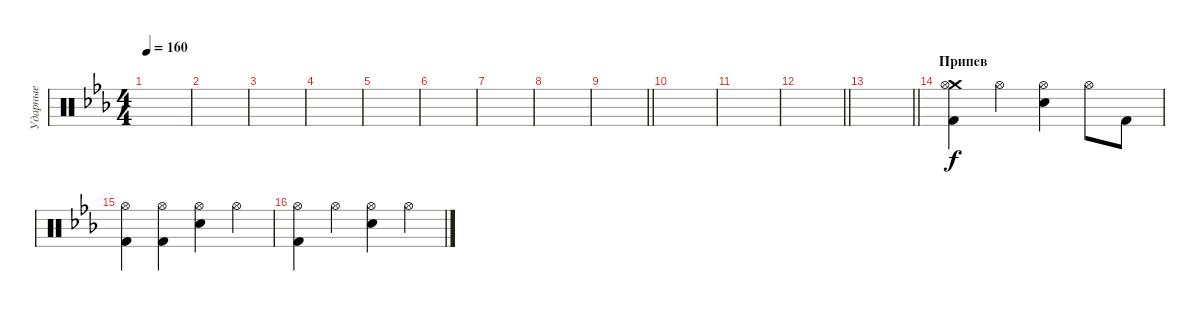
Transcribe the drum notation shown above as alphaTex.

\track ("Ударные" "Ударные") {instrument percussion}
\staff {score}
\articulation defaults
\ts (4 4)
\tempo 160
\clef neutral
\ks cminor
|
|
|
|
|
|
|
|
\barLineRight lightlight
|
|
|
\barLineRight lightlight
|
\barLineRight lightlight
|
\section ("" "Припев")
("Crash medium (hit)" "Kick (hit) 2" "Hi-Hat (open)").4{dy f volume 16} "Hi-Hat (open)".4 ("Electric Snare (hit)" "Hi-Hat (open)").4 "Hi-Hat (open)".8 "Kick (hit) 2".8 |
("Kick (hit) 2" "Hi-Hat (open)").4 ("Kick (hit) 2" "Hi-Hat (open)").4 ("Electric Snare (hit)" "Hi-Hat (open)").4 "Hi-Hat (open)".4 |
("Kick (hit) 2" "Hi-Hat (open)").4 "Hi-Hat (open)".4 ("Electric Snare (hit)" "Hi-Hat (open)").4 "Hi-Hat (open)".4
